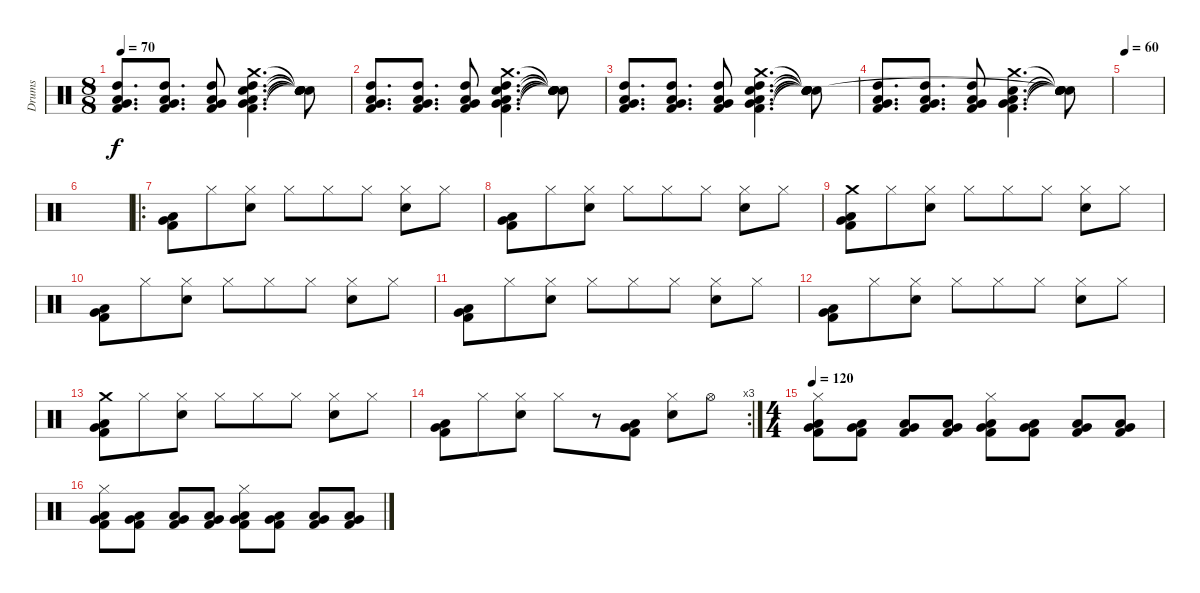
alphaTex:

\track ("Drums" "Drums") {instrument percussion}
\staff {score}
\articulation defaults
\ts (8 8)
\tempo 70
\clef neutral
\ks c
("High Tom (hit)" "Low Tom (hit)" "Very Low Tom (hit)" "Kick (hit) 2").8{d dy f} ("High Tom (hit)" "Low Tom (hit)" "Very Low Tom (hit)" "Kick (hit) 2").8{d} ("High Tom (hit)" "Low Tom (hit)" "Very Low Tom (hit)" "Kick (hit) 2").8 ("Crash medium (hit)" "Snare (hit) 2" "High Tom (hit)" "Low Tom (hit)" "Very Low Tom (hit)" "Kick (hit) 2").4{d} ("Snare (hit)"{t} "Snare (hit)"{t} "Snare (hit)"{t} "Snare (hit)"{t} "Snare (hit)"{t} "Snare (hit)"{t}).8 |
("High Tom (hit)" "Low Tom (hit)" "Very Low Tom (hit)" "Kick (hit) 2").8{d} ("High Tom (hit)" "Low Tom (hit)" "Very Low Tom (hit)" "Kick (hit) 2").8{d} ("High Tom (hit)" "Low Tom (hit)" "Very Low Tom (hit)" "Kick (hit) 2").8 ("Crash medium (hit)" "Snare (hit) 2" "High Tom (hit)" "Low Tom (hit)" "Very Low Tom (hit)" "Kick (hit) 2").4{d} ("Snare (hit)"{t} "Snare (hit)"{t} "Snare (hit)"{t} "Snare (hit)"{t} "Snare (hit)"{t} "Snare (hit)"{t}).8 |
("High Tom (hit)" "Low Tom (hit)" "Very Low Tom (hit)" "Kick (hit) 2").8{d} ("High Tom (hit)" "Low Tom (hit)" "Very Low Tom (hit)" "Kick (hit) 2").8{d} ("High Tom (hit)" "Low Tom (hit)" "Very Low Tom (hit)" "Kick (hit) 2").8 ("Crash medium (hit)" "Snare (hit) 2" "High Tom (hit)" "Low Tom (hit)" "Very Low Tom (hit)" "Kick (hit) 2").4{d} ("Snare (hit)"{t} "Snare (hit)"{t} "Snare (hit)"{t} "Snare (hit)"{t} "Snare (hit)"{t} "Snare (hit)"{t}).8 |
("High Tom (hit)" "Low Tom (hit)" "Very Low Tom (hit)" "Kick (hit) 2").8{d} ("High Tom (hit)" "Low Tom (hit)" "Very Low Tom (hit)" "Kick (hit) 2").8{d} ("High Tom (hit)" "Low Tom (hit)" "Very Low Tom (hit)" "Kick (hit) 2").8 ("Crash medium (hit)" "Snare (hit) 2" "Low Tom (hit)" "Very Low Tom (hit)" "Kick (hit) 2").4{d} ("Snare (hit)"{t} "Snare (hit)"{t} "Snare (hit)"{t} "Snare (hit)"{t} "Snare (hit)"{t} "Snare (hit)"{t}).8 |
\tempo 60
|
|
\ro
("Low Tom (hit)" "Very Low Tom (hit)" "Kick (hit) 2").8 "Hi-Hat (closed)".8 ("Hi-Hat (closed)" "Snare (hit) 2").8 "Hi-Hat (closed)".8 "Hi-Hat (closed)".8 "Hi-Hat (closed)".8 ("Hi-Hat (closed)" "Snare (hit) 2").8 "Hi-Hat (closed)".8 |
("Low Tom (hit)" "Very Low Tom (hit)" "Kick (hit) 2").8 "Hi-Hat (closed)".8 ("Hi-Hat (closed)" "Snare (hit) 2").8 "Hi-Hat (closed)".8 "Hi-Hat (closed)".8 "Hi-Hat (closed)".8 ("Hi-Hat (closed)" "Snare (hit) 2").8 "Hi-Hat (closed)".8 |
("Crash medium (hit)" "Low Tom (hit)" "Very Low Tom (hit)" "Kick (hit) 2").8 "Hi-Hat (closed)".8 ("Hi-Hat (closed)" "Snare (hit) 2").8 "Hi-Hat (closed)".8 "Hi-Hat (closed)".8 "Hi-Hat (closed)".8 ("Hi-Hat (closed)" "Snare (hit) 2").8 "Hi-Hat (closed)".8 |
("Low Tom (hit)" "Very Low Tom (hit)" "Kick (hit) 2").8 "Hi-Hat (closed)".8 ("Hi-Hat (closed)" "Snare (hit) 2").8 "Hi-Hat (closed)".8 "Hi-Hat (closed)".8 "Hi-Hat (closed)".8 ("Hi-Hat (closed)" "Snare (hit) 2").8 "Hi-Hat (closed)".8 |
("Low Tom (hit)" "Very Low Tom (hit)" "Kick (hit) 2").8 "Hi-Hat (closed)".8 ("Hi-Hat (closed)" "Snare (hit) 2").8 "Hi-Hat (closed)".8 "Hi-Hat (closed)".8 "Hi-Hat (closed)".8 ("Hi-Hat (closed)" "Snare (hit) 2").8 "Hi-Hat (closed)".8 |
("Low Tom (hit)" "Very Low Tom (hit)" "Kick (hit) 2").8 "Hi-Hat (closed)".8 ("Hi-Hat (closed)" "Snare (hit) 2").8 "Hi-Hat (closed)".8 "Hi-Hat (closed)".8 "Hi-Hat (closed)".8 ("Hi-Hat (closed)" "Snare (hit) 2").8 "Hi-Hat (closed)".8 |
("Crash medium (hit)" "Low Tom (hit)" "Very Low Tom (hit)" "Kick (hit) 2").8 "Hi-Hat (closed)".8 ("Hi-Hat (closed)" "Snare (hit) 2").8 "Hi-Hat (closed)".8 "Hi-Hat (closed)".8 "Hi-Hat (closed)".8 ("Hi-Hat (closed)" "Snare (hit) 2").8 "Hi-Hat (closed)".8 |
\rc 3
("Low Tom (hit)" "Very Low Tom (hit)" "Kick (hit) 2").8 "Hi-Hat (closed)".8 ("Hi-Hat (closed)" "Snare (hit) 2").8 "Hi-Hat (closed)".8 r.8 ("Low Tom (hit)" "Very Low Tom (hit)" "Kick (hit) 2").8 ("Hi-Hat (closed)" "Snare (hit) 2").8 "Hi-Hat (open)".8 |
\ts (4 4)
\tempo 120
("Hi-Hat (closed)" "Low Tom (hit)" "Very Low Tom (hit)" "Kick (hit) 2").8 ("Low Tom (hit)" "Very Low Tom (hit)" "Kick (hit) 2").8 ("Low Tom (hit)" "Very Low Tom (hit)" "Kick (hit) 2").8 ("Low Tom (hit)" "Very Low Tom (hit)" "Kick (hit) 2").8 ("Hi-Hat (closed)" "Low Tom (hit)" "Very Low Tom (hit)" "Kick (hit) 2").8 ("Low Tom (hit)" "Very Low Tom (hit)" "Kick (hit) 2").8 ("Low Tom (hit)" "Very Low Tom (hit)" "Kick (hit) 2").8 ("Low Tom (hit)" "Very Low Tom (hit)" "Kick (hit) 2").8 |
("Hi-Hat (closed)" "Low Tom (hit)" "Very Low Tom (hit)" "Kick (hit) 2").8 ("Low Tom (hit)" "Very Low Tom (hit)" "Kick (hit) 2").8 ("Low Tom (hit)" "Very Low Tom (hit)" "Kick (hit) 2").8 ("Low Tom (hit)" "Very Low Tom (hit)" "Kick (hit) 2").8 ("Hi-Hat (closed)" "Low Tom (hit)" "Very Low Tom (hit)" "Kick (hit) 2").8 ("Low Tom (hit)" "Very Low Tom (hit)" "Kick (hit) 2").8 ("Low Tom (hit)" "Very Low Tom (hit)" "Kick (hit) 2").8 ("Low Tom (hit)" "Very Low Tom (hit)" "Kick (hit) 2").8
